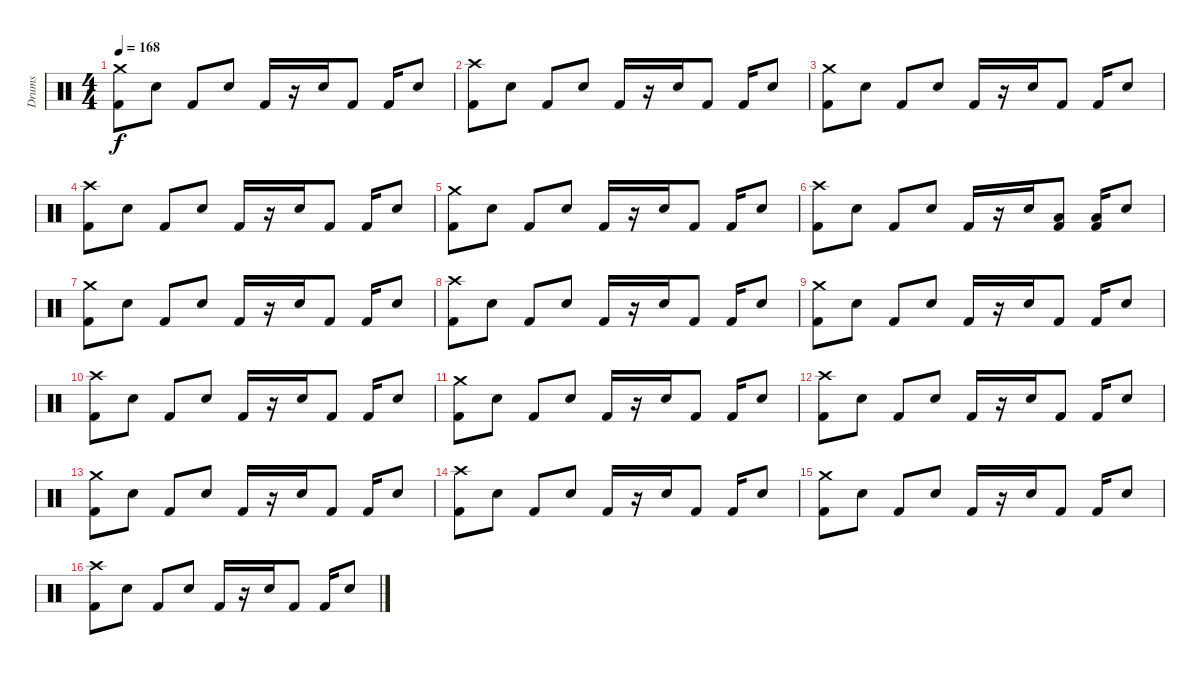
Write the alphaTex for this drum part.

\track ("Drums" "Drums") {instrument percussion}
\staff {score}
\articulation defaults
\ts (4 4)
\tempo 168
\clef neutral
\ks c
("Crash medium (hit)" "Kick (hit) 2").8{dy f} "Electric Snare (hit)".8 "Kick (hit) 2".8 "Electric Snare (hit)".8 "Kick (hit) 2".16 r.16 "Electric Snare (hit)".16 "Kick (hit) 2".8 "Kick (hit) 2".16 "Electric Snare (hit)".8 |
("Crash high (hit)" "Kick (hit) 2").8 "Electric Snare (hit)".8 "Kick (hit) 2".8 "Electric Snare (hit)".8 "Kick (hit) 2".16 r.16 "Electric Snare (hit)".16 "Kick (hit) 2".8 "Kick (hit) 2".16 "Electric Snare (hit)".8 |
("Crash medium (hit)" "Kick (hit) 2").8 "Electric Snare (hit)".8 "Kick (hit) 2".8 "Electric Snare (hit)".8 "Kick (hit) 2".16 r.16 "Electric Snare (hit)".16 "Kick (hit) 2".8 "Kick (hit) 2".16 "Electric Snare (hit)".8 |
("Crash high (hit)" "Kick (hit) 2").8 "Electric Snare (hit)".8 "Kick (hit) 2".8 "Electric Snare (hit)".8 "Kick (hit) 2".16 r.16 "Electric Snare (hit)".16 "Kick (hit) 2".8 "Kick (hit) 2".16 "Electric Snare (hit)".8 |
("Crash medium (hit)" "Kick (hit) 2").8 "Electric Snare (hit)".8 "Kick (hit) 2".8 "Electric Snare (hit)".8 "Kick (hit) 2".16 r.16 "Electric Snare (hit)".16 "Kick (hit) 2".8 "Kick (hit) 2".16 "Electric Snare (hit)".8 |
("Crash high (hit)" "Kick (hit) 2").8 "Electric Snare (hit)".8 "Kick (hit) 2".8 "Electric Snare (hit)".8 "Kick (hit) 2".16 r.16 "Electric Snare (hit)".16 ("Low Tom (hit)" "Kick (hit) 2").8 ("Low Tom (hit)" "Kick (hit) 2").16 "Electric Snare (hit)".8 |
("Crash medium (hit)" "Kick (hit) 2").8 "Electric Snare (hit)".8 "Kick (hit) 2".8 "Electric Snare (hit)".8 "Kick (hit) 2".16 r.16 "Electric Snare (hit)".16 "Kick (hit) 2".8 "Kick (hit) 2".16 "Electric Snare (hit)".8 |
("Crash high (hit)" "Kick (hit) 2").8 "Electric Snare (hit)".8 "Kick (hit) 2".8 "Electric Snare (hit)".8 "Kick (hit) 2".16 r.16 "Electric Snare (hit)".16 "Kick (hit) 2".8 "Kick (hit) 2".16 "Electric Snare (hit)".8 |
("Crash medium (hit)" "Kick (hit) 2").8 "Electric Snare (hit)".8 "Kick (hit) 2".8 "Electric Snare (hit)".8 "Kick (hit) 2".16 r.16 "Electric Snare (hit)".16 "Kick (hit) 2".8 "Kick (hit) 2".16 "Electric Snare (hit)".8 |
("Crash high (hit)" "Kick (hit) 2").8 "Electric Snare (hit)".8 "Kick (hit) 2".8 "Electric Snare (hit)".8 "Kick (hit) 2".16 r.16 "Electric Snare (hit)".16 "Kick (hit) 2".8 "Kick (hit) 2".16 "Electric Snare (hit)".8 |
("Crash medium (hit)" "Kick (hit) 2").8 "Electric Snare (hit)".8 "Kick (hit) 2".8 "Electric Snare (hit)".8 "Kick (hit) 2".16 r.16 "Electric Snare (hit)".16 "Kick (hit) 2".8 "Kick (hit) 2".16 "Electric Snare (hit)".8 |
("Crash high (hit)" "Kick (hit) 2").8 "Electric Snare (hit)".8 "Kick (hit) 2".8 "Electric Snare (hit)".8 "Kick (hit) 2".16 r.16 "Electric Snare (hit)".16 "Kick (hit) 2".8 "Kick (hit) 2".16 "Electric Snare (hit)".8 |
("Crash medium (hit)" "Kick (hit) 2").8 "Electric Snare (hit)".8 "Kick (hit) 2".8 "Electric Snare (hit)".8 "Kick (hit) 2".16 r.16 "Electric Snare (hit)".16 "Kick (hit) 2".8 "Kick (hit) 2".16 "Electric Snare (hit)".8 |
("Crash high (hit)" "Kick (hit) 2").8 "Electric Snare (hit)".8 "Kick (hit) 2".8 "Electric Snare (hit)".8 "Kick (hit) 2".16 r.16 "Electric Snare (hit)".16 "Kick (hit) 2".8 "Kick (hit) 2".16 "Electric Snare (hit)".8 |
("Crash medium (hit)" "Kick (hit) 2").8 "Electric Snare (hit)".8 "Kick (hit) 2".8 "Electric Snare (hit)".8 "Kick (hit) 2".16 r.16 "Electric Snare (hit)".16 "Kick (hit) 2".8 "Kick (hit) 2".16 "Electric Snare (hit)".8 |
("Crash high (hit)" "Kick (hit) 2").8 "Electric Snare (hit)".8 "Kick (hit) 2".8 "Electric Snare (hit)".8 "Kick (hit) 2".16 r.16 "Electric Snare (hit)".16 "Kick (hit) 2".8 "Kick (hit) 2".16 "Electric Snare (hit)".8
